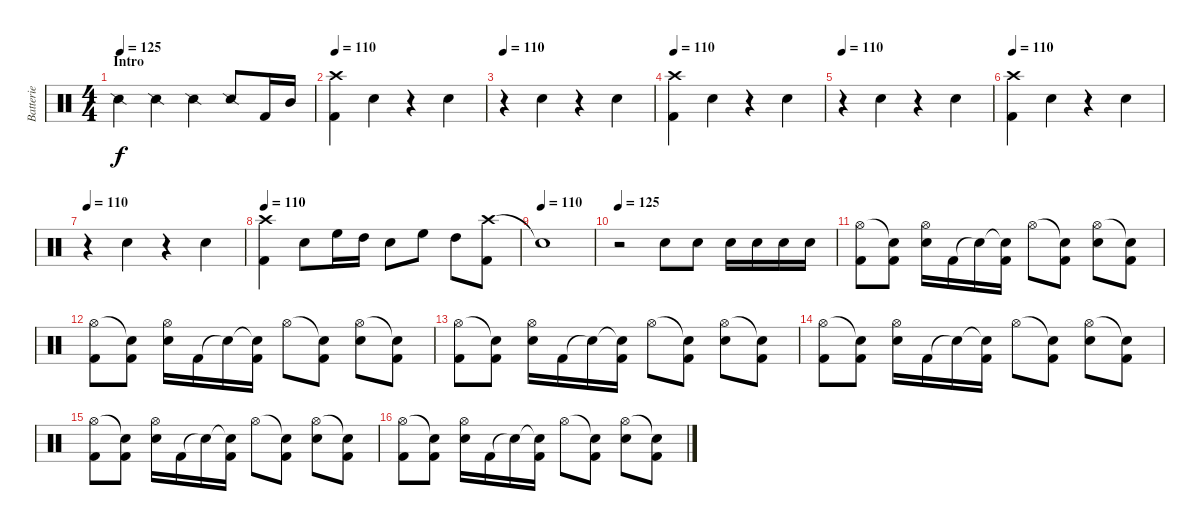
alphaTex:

\track ("Batterie" "Batterie") {instrument percussion}
\staff {score}
\articulation defaults
\ts (4 4)
\section ("" "Intro")
\tempo 125
\tempo 110
\tempo 125
\clef neutral
\ks c "Snare (side stick) 2".4{dy f} "Snare (side stick) 2".4 "Snare (side stick) 2".4 "Snare (side stick) 2".8 "Kick (hit) 2".16 "Mid Tom (hit)".16
|
\tempo 110
("Crash high (hit)" "Kick (hit) 2").4 "Metronome (bell)".4 r.4 "Metronome (bell)".4 |
\tempo 110
r.4 "Metronome (bell)".4 r.4 "Metronome (bell)".4 |
\tempo 110
("Crash high (hit)" "Kick (hit) 2").4 "Metronome (bell)".4 r.4 "Metronome (bell)".4 |
\tempo 110
r.4 "Metronome (bell)".4 r.4 "Metronome (bell)".4 |
\tempo 110
("Crash high (hit)" "Kick (hit) 2").4 "Metronome (bell)".4 r.4 "Metronome (bell)".4 |
\tempo 110
r.4 "Metronome (bell)".4 r.4 "Metronome (bell)".4 |
\tempo 110
("Crash high (hit)" "Kick (hit) 2").4 "Metronome (bell)".8 "High Floor Tom (hit)".16 "High Tom (hit)".16 "Electric Snare (hit)".8 "High Floor Tom (hit)".8 "High Tom (hit)".8 ("Crash high (hit)" "Kick (hit) 2").8 |
\tempo (110)
"Snare (hit)"{t}.1 |
\tempo 125
r.2 "Electric Snare (hit)".8 "Electric Snare (hit)".8 "Electric Snare (hit)".16 "Electric Snare (hit)".16 "Electric Snare (hit)".16 "Electric Snare (hit)".16 |
("Hi-Hat (open)" "Kick (hit) 2").8 ("Snare (hit)"{t} "Kick (hit) 2").8 ("Hi-Hat (open)" "Electric Snare (hit)").16 "Kick (hit) 2".16 "Snare (hit)"{t}.16 ("Snare (hit)"{t} "Kick (hit) 2").16 "Hi-Hat (open)".8 ("Snare (hit)"{t} "Kick (hit) 2").8 ("Hi-Hat (open)" "Electric Snare (hit)").8 ("Snare (hit)"{t} "Kick (hit) 2").8 |
("Hi-Hat (open)" "Kick (hit) 2").8 ("Snare (hit)"{t} "Kick (hit) 2").8 ("Hi-Hat (open)" "Electric Snare (hit)").16 "Kick (hit) 2".16 "Snare (hit)"{t}.16 ("Snare (hit)"{t} "Kick (hit) 2").16 "Hi-Hat (open)".8 ("Snare (hit)"{t} "Kick (hit) 2").8 ("Hi-Hat (open)" "Electric Snare (hit)").8 ("Snare (hit)"{t} "Kick (hit) 2").8 |
("Hi-Hat (open)" "Kick (hit) 2").8 ("Snare (hit)"{t} "Kick (hit) 2").8 ("Hi-Hat (open)" "Electric Snare (hit)").16 "Kick (hit) 2".16 "Snare (hit)"{t}.16 ("Snare (hit)"{t} "Kick (hit) 2").16 "Hi-Hat (open)".8 ("Snare (hit)"{t} "Kick (hit) 2").8 ("Hi-Hat (open)" "Electric Snare (hit)").8 ("Snare (hit)"{t} "Kick (hit) 2").8 |
("Hi-Hat (open)" "Kick (hit) 2").8 ("Snare (hit)"{t} "Kick (hit) 2").8 ("Hi-Hat (open)" "Electric Snare (hit)").16 "Kick (hit) 2".16 "Snare (hit)"{t}.16 ("Snare (hit)"{t} "Kick (hit) 2").16 "Hi-Hat (open)".8 ("Snare (hit)"{t} "Kick (hit) 2").8 ("Hi-Hat (open)" "Electric Snare (hit)").8 ("Snare (hit)"{t} "Kick (hit) 2").8 |
("Hi-Hat (open)" "Kick (hit) 2").8 ("Snare (hit)"{t} "Kick (hit) 2").8 ("Hi-Hat (open)" "Electric Snare (hit)").16 "Kick (hit) 2".16 "Snare (hit)"{t}.16 ("Snare (hit)"{t} "Kick (hit) 2").16 "Hi-Hat (open)".8 ("Snare (hit)"{t} "Kick (hit) 2").8 ("Hi-Hat (open)" "Electric Snare (hit)").8 ("Snare (hit)"{t} "Kick (hit) 2").8 |
("Hi-Hat (open)" "Kick (hit) 2").8 ("Snare (hit)"{t} "Kick (hit) 2").8 ("Hi-Hat (open)" "Electric Snare (hit)").16 "Kick (hit) 2".16 "Snare (hit)"{t}.16 ("Snare (hit)"{t} "Kick (hit) 2").16 "Hi-Hat (open)".8 ("Snare (hit)"{t} "Kick (hit) 2").8 ("Hi-Hat (open)" "Electric Snare (hit)").8 ("Snare (hit)"{t} "Kick (hit) 2").8
